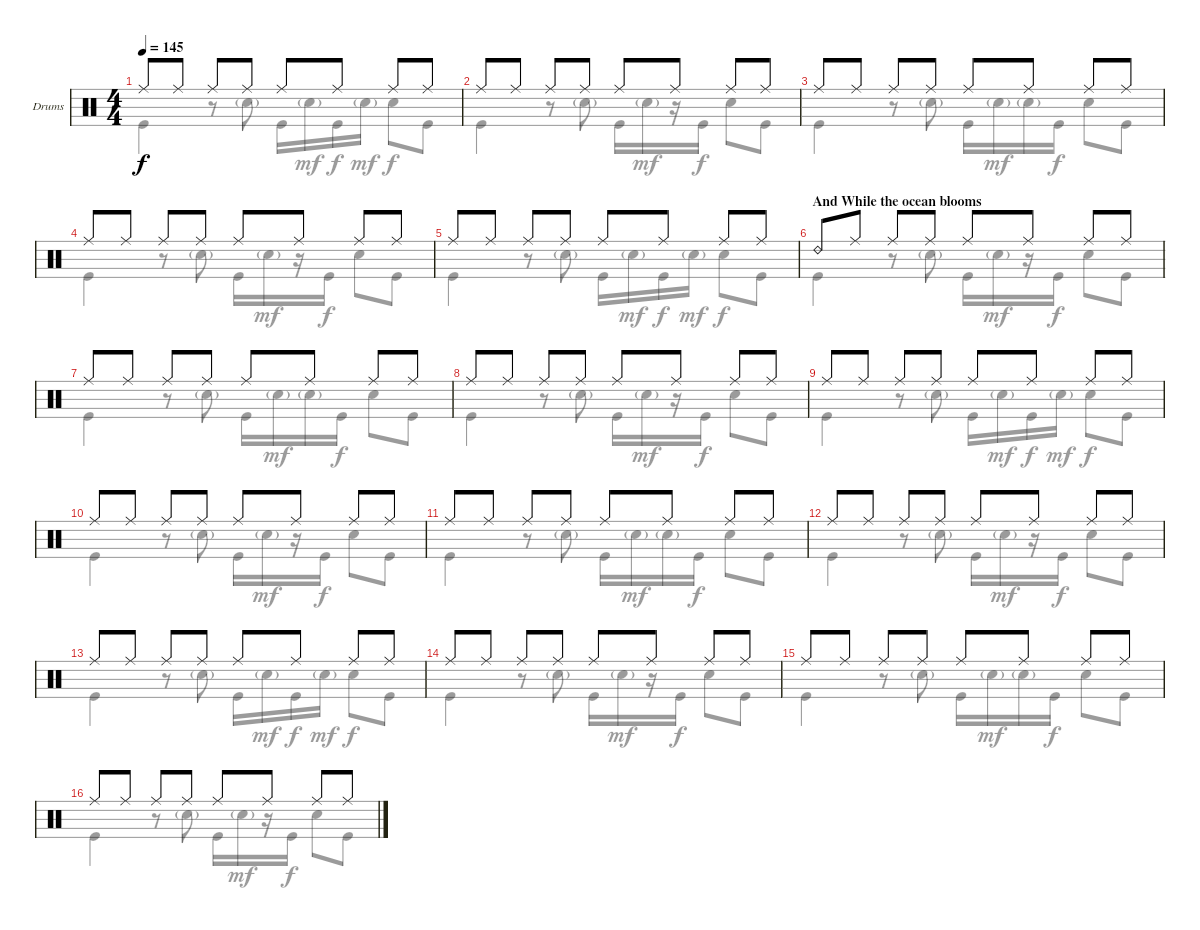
\defaultSystemsLayout 4
\bracketExtendMode groupsimilarinstruments
\firstSystemTrackNameOrientation horizontal
\otherSystemsTrackNameOrientation horizontal
\track ("Drumkit" "Drums") {instrument percussion}
\staff {score}
\articulation defaults
\voice
\ts (4 4)
\tempo 145
\clef neutral
\ks c "Ride (middle)".8{dy f} "Ride (middle)".8 "Ride (middle)".8 "Ride (middle)".8 "Ride (middle)".8 "Ride (middle)".8 "Ride (middle)".8 "Ride (middle)".8
|
"Ride (middle)".8 "Ride (middle)".8 "Ride (middle)".8 "Ride (middle)".8 "Ride (middle)".8 "Ride (middle)".8 "Ride (middle)".8 "Ride (middle)".8 |
"Ride (middle)".8 "Ride (middle)".8 "Ride (middle)".8 "Ride (middle)".8 "Ride (middle)".8 "Ride (middle)".8 "Ride (middle)".8 "Ride (middle)".8 |
"Ride (middle)".8 "Ride (middle)".8 "Ride (middle)".8 "Ride (middle)".8 "Ride (middle)".8 "Ride (middle)".8 "Ride (middle)".8 "Ride (middle)".8 |
"Ride (middle)".8 "Ride (middle)".8 "Ride (middle)".8 "Ride (middle)".8 "Ride (middle)".8 "Ride (middle)".8 "Ride (middle)".8 "Ride (middle)".8 |
\section ("" "And While the ocean blooms")
"Ride (bell) 2".8 "Ride (middle)".8 "Ride (middle)".8 "Ride (middle)".8 "Ride (middle)".8 "Ride (middle)".8 "Ride (middle)".8 "Ride (middle)".8 |
"Ride (middle)".8 "Ride (middle)".8 "Ride (middle)".8 "Ride (middle)".8 "Ride (middle)".8 "Ride (middle)".8 "Ride (middle)".8 "Ride (middle)".8 |
"Ride (middle)".8 "Ride (middle)".8 "Ride (middle)".8 "Ride (middle)".8 "Ride (middle)".8 "Ride (middle)".8 "Ride (middle)".8 "Ride (middle)".8 |
"Ride (middle)".8 "Ride (middle)".8 "Ride (middle)".8 "Ride (middle)".8 "Ride (middle)".8 "Ride (middle)".8 "Ride (middle)".8 "Ride (middle)".8 |
"Ride (middle)".8 "Ride (middle)".8 "Ride (middle)".8 "Ride (middle)".8 "Ride (middle)".8 "Ride (middle)".8 "Ride (middle)".8 "Ride (middle)".8 |
"Ride (middle)".8 "Ride (middle)".8 "Ride (middle)".8 "Ride (middle)".8 "Ride (middle)".8 "Ride (middle)".8 "Ride (middle)".8 "Ride (middle)".8 |
"Ride (middle)".8 "Ride (middle)".8 "Ride (middle)".8 "Ride (middle)".8 "Ride (middle)".8 "Ride (middle)".8 "Ride (middle)".8 "Ride (middle)".8 |
"Ride (middle)".8 "Ride (middle)".8 "Ride (middle)".8 "Ride (middle)".8 "Ride (middle)".8 "Ride (middle)".8 "Ride (middle)".8 "Ride (middle)".8 |
"Ride (middle)".8 "Ride (middle)".8 "Ride (middle)".8 "Ride (middle)".8 "Ride (middle)".8 "Ride (middle)".8 "Ride (middle)".8 "Ride (middle)".8 |
"Ride (middle)".8 "Ride (middle)".8 "Ride (middle)".8 "Ride (middle)".8 "Ride (middle)".8 "Ride (middle)".8 "Ride (middle)".8 "Ride (middle)".8 |
"Ride (middle)".8 "Ride (middle)".8 "Ride (middle)".8 "Ride (middle)".8 "Ride (middle)".8 "Ride (middle)".8 "Ride (middle)".8 "Ride (middle)".8
\voice
\clef neutral
\ottava regular
\simile none
\ks c "Kick (hit)".4{dy f}
r.8 "Snare (hit) 2"{g}.8 "Kick (hit)".16 "Snare (hit) 2"{g}.16{dy mf} "Kick (hit)".16{dy f} "Snare (hit) 2"{g}.16{dy mf} "Snare (hit) 2".8{dy f} "Kick (hit)".8 |
"Kick (hit)".4 r.8 "Snare (hit) 2"{g}.8 "Kick (hit)".16 "Snare (hit) 2"{g}.16{dy mf} r.16 "Kick (hit)".16{dy f} "Snare (hit) 2".8 "Kick (hit)".8 |
"Kick (hit)".4 r.8 "Snare (hit) 2"{g}.8 "Kick (hit)".16 "Snare (hit) 2"{g}.16{dy mf} "Snare (hit) 2"{g}.16 "Kick (hit)".16{dy f} "Snare (hit) 2".8 "Kick (hit)".8 |
"Kick (hit)".4 r.8 "Snare (hit) 2"{g}.8 "Kick (hit)".16 "Snare (hit) 2"{g}.16{dy mf} r.16 "Kick (hit)".16{dy f} "Snare (hit) 2".8 "Kick (hit)".8 |
"Kick (hit)".4 r.8 "Snare (hit) 2"{g}.8 "Kick (hit)".16 "Snare (hit) 2"{g}.16{dy mf} "Kick (hit)".16{dy f} "Snare (hit) 2"{g}.16{dy mf} "Snare (hit) 2".8{dy f} "Kick (hit)".8 |
"Kick (hit)".4 r.8 "Snare (hit) 2"{g}.8 "Kick (hit)".16 "Snare (hit) 2"{g}.16{dy mf} r.16 "Kick (hit)".16{dy f} "Snare (hit) 2".8 "Kick (hit)".8 |
"Kick (hit)".4 r.8 "Snare (hit) 2"{g}.8 "Kick (hit)".16 "Snare (hit) 2"{g}.16{dy mf} "Snare (hit) 2"{g}.16 "Kick (hit)".16{dy f} "Snare (hit) 2".8 "Kick (hit)".8 |
"Kick (hit)".4 r.8 "Snare (hit) 2"{g}.8 "Kick (hit)".16 "Snare (hit) 2"{g}.16{dy mf} r.16 "Kick (hit)".16{dy f} "Snare (hit) 2".8 "Kick (hit)".8 |
"Kick (hit)".4 r.8 "Snare (hit) 2"{g}.8 "Kick (hit)".16 "Snare (hit) 2"{g}.16{dy mf} "Kick (hit)".16{dy f} "Snare (hit) 2"{g}.16{dy mf} "Snare (hit) 2".8{dy f} "Kick (hit)".8 |
"Kick (hit)".4 r.8 "Snare (hit) 2"{g}.8 "Kick (hit)".16 "Snare (hit) 2"{g}.16{dy mf} r.16 "Kick (hit)".16{dy f} "Snare (hit) 2".8 "Kick (hit)".8 |
"Kick (hit)".4 r.8 "Snare (hit) 2"{g}.8 "Kick (hit)".16 "Snare (hit) 2"{g}.16{dy mf} "Snare (hit) 2"{g}.16 "Kick (hit)".16{dy f} "Snare (hit) 2".8 "Kick (hit)".8 |
"Kick (hit)".4 r.8 "Snare (hit) 2"{g}.8 "Kick (hit)".16 "Snare (hit) 2"{g}.16{dy mf} r.16 "Kick (hit)".16{dy f} "Snare (hit) 2".8 "Kick (hit)".8 |
"Kick (hit)".4 r.8 "Snare (hit) 2"{g}.8 "Kick (hit)".16 "Snare (hit) 2"{g}.16{dy mf} "Kick (hit)".16{dy f} "Snare (hit) 2"{g}.16{dy mf} "Snare (hit) 2".8{dy f} "Kick (hit)".8 |
"Kick (hit)".4 r.8 "Snare (hit) 2"{g}.8 "Kick (hit)".16 "Snare (hit) 2"{g}.16{dy mf} r.16 "Kick (hit)".16{dy f} "Snare (hit) 2".8 "Kick (hit)".8 |
"Kick (hit)".4 r.8 "Snare (hit) 2"{g}.8 "Kick (hit)".16 "Snare (hit) 2"{g}.16{dy mf} "Snare (hit) 2"{g}.16 "Kick (hit)".16{dy f} "Snare (hit) 2".8 "Kick (hit)".8 |
"Kick (hit)".4 r.8 "Snare (hit) 2"{g}.8 "Kick (hit)".16 "Snare (hit) 2"{g}.16{dy mf} r.16 "Kick (hit)".16{dy f} "Snare (hit) 2".8 "Kick (hit)".8
